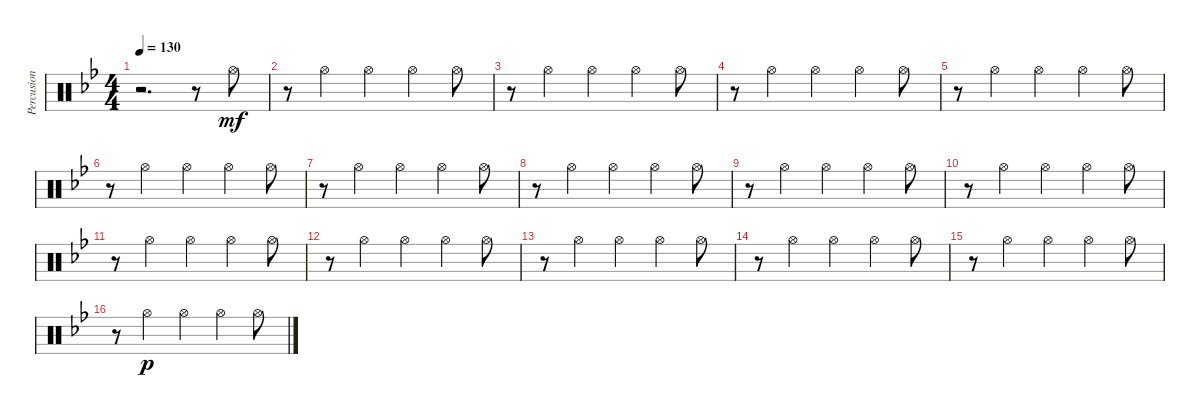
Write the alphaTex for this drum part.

\track ("Percusion IV" "Percusion ") {instrument percussion}
\staff {score}
\articulation defaults
\ts (4 4)
\tempo 130
\clef neutral
\ks gminor
r.2{d dy mf} r.8 "Hi-Hat (open)".8 |
r.8 "Hi-Hat (open)".4 "Hi-Hat (open)".4 "Hi-Hat (open)".4 "Hi-Hat (open)".8 |
r.8 "Hi-Hat (open)".4 "Hi-Hat (open)".4 "Hi-Hat (open)".4 "Hi-Hat (open)".8 |
r.8 "Hi-Hat (open)".4 "Hi-Hat (open)".4 "Hi-Hat (open)".4 "Hi-Hat (open)".8 |
r.8 "Hi-Hat (open)".4 "Hi-Hat (open)".4 "Hi-Hat (open)".4 "Hi-Hat (open)".8 |
r.8 "Hi-Hat (open)".4 "Hi-Hat (open)".4 "Hi-Hat (open)".4 "Hi-Hat (open)".8 |
r.8 "Hi-Hat (open)".4 "Hi-Hat (open)".4 "Hi-Hat (open)".4 "Hi-Hat (open)".8 |
r.8 "Hi-Hat (open)".4 "Hi-Hat (open)".4 "Hi-Hat (open)".4 "Hi-Hat (open)".8 |
r.8 "Hi-Hat (open)".4 "Hi-Hat (open)".4 "Hi-Hat (open)".4 "Hi-Hat (open)".8 |
r.8 "Hi-Hat (open)".4 "Hi-Hat (open)".4 "Hi-Hat (open)".4 "Hi-Hat (open)".8 |
r.8 "Hi-Hat (open)".4 "Hi-Hat (open)".4 "Hi-Hat (open)".4 "Hi-Hat (open)".8 |
r.8 "Hi-Hat (open)".4 "Hi-Hat (open)".4 "Hi-Hat (open)".4 "Hi-Hat (open)".8 |
r.8 "Hi-Hat (open)".4 "Hi-Hat (open)".4 "Hi-Hat (open)".4 "Hi-Hat (open)".8 |
r.8 "Hi-Hat (open)".4 "Hi-Hat (open)".4 "Hi-Hat (open)".4 "Hi-Hat (open)".8 |
r.8 "Hi-Hat (open)".4 "Hi-Hat (open)".4 "Hi-Hat (open)".4 "Hi-Hat (open)".8 |
r.8 "Hi-Hat (open)".4{dy p} "Hi-Hat (open)".4 "Hi-Hat (open)".4 "Hi-Hat (open)".8
